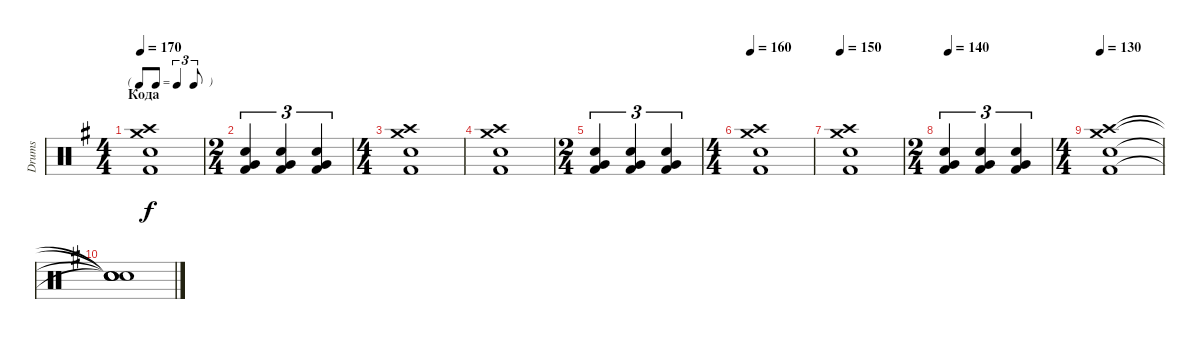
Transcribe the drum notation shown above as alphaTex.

\track ("Drums" "Drums") {instrument percussion}
\staff {score}
\articulation defaults
\ts (4 4)
\tf triplet8th
\section ("" "Кода")
\tempo 170
\clef neutral
\ks eminor
("Crash high (hit)" "Crash medium (hit)" "Kick (hit) 2" "Electric Snare (hit)").1{dy f} |
\ts (2 4)
("Very Low Tom (hit)" "Electric Snare (hit)" "Kick (hit) 2").4{tu (3 2)} ("Very Low Tom (hit)" "Electric Snare (hit)" "Kick (hit) 2").4{tu (3 2)} ("Very Low Tom (hit)" "Electric Snare (hit)" "Kick (hit) 2").4{tu (3 2)} |
\ts (4 4)
("Crash high (hit)" "Crash medium (hit)" "Kick (hit) 2" "Electric Snare (hit)").1 |
("Crash high (hit)" "Crash medium (hit)" "Kick (hit) 2" "Electric Snare (hit)").1 |
\ts (2 4)
("Very Low Tom (hit)" "Electric Snare (hit)" "Kick (hit) 2").4{tu (3 2)} ("Very Low Tom (hit)" "Electric Snare (hit)" "Kick (hit) 2").4{tu (3 2)} ("Very Low Tom (hit)" "Electric Snare (hit)" "Kick (hit) 2").4{tu (3 2)} |
\ts (4 4)
\tempo 160
("Crash high (hit)" "Crash medium (hit)" "Kick (hit) 2" "Electric Snare (hit)").1 |
\tempo 150
("Crash high (hit)" "Crash medium (hit)" "Kick (hit) 2" "Electric Snare (hit)").1 |
\ts (2 4)
\tempo 140
("Very Low Tom (hit)" "Electric Snare (hit)" "Kick (hit) 2").4{tu (3 2)} ("Very Low Tom (hit)" "Electric Snare (hit)" "Kick (hit) 2").4{tu (3 2)} ("Very Low Tom (hit)" "Electric Snare (hit)" "Kick (hit) 2").4{tu (3 2)} |
\ts (4 4)
\tempo 130
("Crash high (hit)" "Crash medium (hit)" "Kick (hit) 2" "Electric Snare (hit)").1 |
("Snare (hit)"{t} "Snare (hit)"{t} "Snare (hit)"{t} "Snare (hit)"{t}).1
